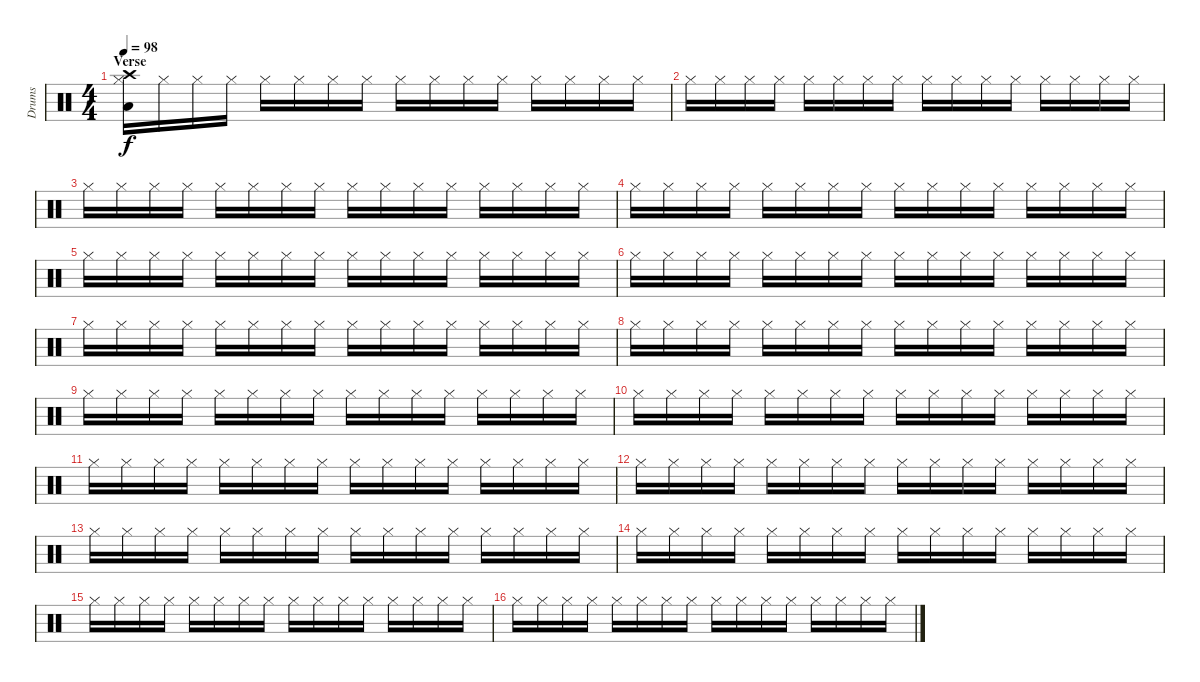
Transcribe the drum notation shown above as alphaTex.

\track ("Drums" "Drums") {instrument percussion}
\staff {score}
\articulation defaults
\ts (4 4)
\section ("" "Verse")
\tempo 98
\clef neutral
\ks c
("Crash high (hit)" "Low Floor Tom (hit)" "Hi-Hat (closed)").16{dy f} "Hi-Hat (closed)".16 "Hi-Hat (closed)".16 "Hi-Hat (closed)".16 "Hi-Hat (closed)".16 "Hi-Hat (closed)".16 "Hi-Hat (closed)".16 "Hi-Hat (closed)".16 "Hi-Hat (closed)".16 "Hi-Hat (closed)".16 "Hi-Hat (closed)".16 "Hi-Hat (closed)".16 "Hi-Hat (closed)".16 "Hi-Hat (closed)".16 "Hi-Hat (closed)".16 "Hi-Hat (closed)".16 |
"Hi-Hat (closed)".16 "Hi-Hat (closed)".16 "Hi-Hat (closed)".16 "Hi-Hat (closed)".16 "Hi-Hat (closed)".16 "Hi-Hat (closed)".16 "Hi-Hat (closed)".16 "Hi-Hat (closed)".16 "Hi-Hat (closed)".16 "Hi-Hat (closed)".16 "Hi-Hat (closed)".16 "Hi-Hat (closed)".16 "Hi-Hat (closed)".16 "Hi-Hat (closed)".16 "Hi-Hat (closed)".16 "Hi-Hat (closed)".16 |
"Hi-Hat (closed)".16 "Hi-Hat (closed)".16 "Hi-Hat (closed)".16 "Hi-Hat (closed)".16 "Hi-Hat (closed)".16 "Hi-Hat (closed)".16 "Hi-Hat (closed)".16 "Hi-Hat (closed)".16 "Hi-Hat (closed)".16 "Hi-Hat (closed)".16 "Hi-Hat (closed)".16 "Hi-Hat (closed)".16 "Hi-Hat (closed)".16 "Hi-Hat (closed)".16 "Hi-Hat (closed)".16 "Hi-Hat (closed)".16 |
"Hi-Hat (closed)".16 "Hi-Hat (closed)".16 "Hi-Hat (closed)".16 "Hi-Hat (closed)".16 "Hi-Hat (closed)".16 "Hi-Hat (closed)".16 "Hi-Hat (closed)".16 "Hi-Hat (closed)".16 "Hi-Hat (closed)".16 "Hi-Hat (closed)".16 "Hi-Hat (closed)".16 "Hi-Hat (closed)".16 "Hi-Hat (closed)".16 "Hi-Hat (closed)".16 "Hi-Hat (closed)".16 "Hi-Hat (closed)".16 |
"Hi-Hat (closed)".16 "Hi-Hat (closed)".16 "Hi-Hat (closed)".16 "Hi-Hat (closed)".16 "Hi-Hat (closed)".16 "Hi-Hat (closed)".16 "Hi-Hat (closed)".16 "Hi-Hat (closed)".16 "Hi-Hat (closed)".16 "Hi-Hat (closed)".16 "Hi-Hat (closed)".16 "Hi-Hat (closed)".16 "Hi-Hat (closed)".16 "Hi-Hat (closed)".16 "Hi-Hat (closed)".16 "Hi-Hat (closed)".16 |
"Hi-Hat (closed)".16 "Hi-Hat (closed)".16 "Hi-Hat (closed)".16 "Hi-Hat (closed)".16 "Hi-Hat (closed)".16 "Hi-Hat (closed)".16 "Hi-Hat (closed)".16 "Hi-Hat (closed)".16 "Hi-Hat (closed)".16 "Hi-Hat (closed)".16 "Hi-Hat (closed)".16 "Hi-Hat (closed)".16 "Hi-Hat (closed)".16 "Hi-Hat (closed)".16 "Hi-Hat (closed)".16 "Hi-Hat (closed)".16 |
"Hi-Hat (closed)".16 "Hi-Hat (closed)".16 "Hi-Hat (closed)".16 "Hi-Hat (closed)".16 "Hi-Hat (closed)".16 "Hi-Hat (closed)".16 "Hi-Hat (closed)".16 "Hi-Hat (closed)".16 "Hi-Hat (closed)".16 "Hi-Hat (closed)".16 "Hi-Hat (closed)".16 "Hi-Hat (closed)".16 "Hi-Hat (closed)".16 "Hi-Hat (closed)".16 "Hi-Hat (closed)".16 "Hi-Hat (closed)".16 |
"Hi-Hat (closed)".16 "Hi-Hat (closed)".16 "Hi-Hat (closed)".16 "Hi-Hat (closed)".16 "Hi-Hat (closed)".16 "Hi-Hat (closed)".16 "Hi-Hat (closed)".16 "Hi-Hat (closed)".16 "Hi-Hat (closed)".16 "Hi-Hat (closed)".16 "Hi-Hat (closed)".16 "Hi-Hat (closed)".16 "Hi-Hat (closed)".16 "Hi-Hat (closed)".16 "Hi-Hat (closed)".16 "Hi-Hat (closed)".16 |
"Hi-Hat (closed)".16 "Hi-Hat (closed)".16 "Hi-Hat (closed)".16 "Hi-Hat (closed)".16 "Hi-Hat (closed)".16 "Hi-Hat (closed)".16 "Hi-Hat (closed)".16 "Hi-Hat (closed)".16 "Hi-Hat (closed)".16 "Hi-Hat (closed)".16 "Hi-Hat (closed)".16 "Hi-Hat (closed)".16 "Hi-Hat (closed)".16 "Hi-Hat (closed)".16 "Hi-Hat (closed)".16 "Hi-Hat (closed)".16 |
"Hi-Hat (closed)".16 "Hi-Hat (closed)".16 "Hi-Hat (closed)".16 "Hi-Hat (closed)".16 "Hi-Hat (closed)".16 "Hi-Hat (closed)".16 "Hi-Hat (closed)".16 "Hi-Hat (closed)".16 "Hi-Hat (closed)".16 "Hi-Hat (closed)".16 "Hi-Hat (closed)".16 "Hi-Hat (closed)".16 "Hi-Hat (closed)".16 "Hi-Hat (closed)".16 "Hi-Hat (closed)".16 "Hi-Hat (closed)".16 |
"Hi-Hat (closed)".16 "Hi-Hat (closed)".16 "Hi-Hat (closed)".16 "Hi-Hat (closed)".16 "Hi-Hat (closed)".16 "Hi-Hat (closed)".16 "Hi-Hat (closed)".16 "Hi-Hat (closed)".16 "Hi-Hat (closed)".16 "Hi-Hat (closed)".16 "Hi-Hat (closed)".16 "Hi-Hat (closed)".16 "Hi-Hat (closed)".16 "Hi-Hat (closed)".16 "Hi-Hat (closed)".16 "Hi-Hat (closed)".16 |
"Hi-Hat (closed)".16 "Hi-Hat (closed)".16 "Hi-Hat (closed)".16 "Hi-Hat (closed)".16 "Hi-Hat (closed)".16 "Hi-Hat (closed)".16 "Hi-Hat (closed)".16 "Hi-Hat (closed)".16 "Hi-Hat (closed)".16 "Hi-Hat (closed)".16 "Hi-Hat (closed)".16 "Hi-Hat (closed)".16 "Hi-Hat (closed)".16 "Hi-Hat (closed)".16 "Hi-Hat (closed)".16 "Hi-Hat (closed)".16 |
"Hi-Hat (closed)".16 "Hi-Hat (closed)".16 "Hi-Hat (closed)".16 "Hi-Hat (closed)".16 "Hi-Hat (closed)".16 "Hi-Hat (closed)".16 "Hi-Hat (closed)".16 "Hi-Hat (closed)".16 "Hi-Hat (closed)".16 "Hi-Hat (closed)".16 "Hi-Hat (closed)".16 "Hi-Hat (closed)".16 "Hi-Hat (closed)".16 "Hi-Hat (closed)".16 "Hi-Hat (closed)".16 "Hi-Hat (closed)".16 |
"Hi-Hat (closed)".16 "Hi-Hat (closed)".16 "Hi-Hat (closed)".16 "Hi-Hat (closed)".16 "Hi-Hat (closed)".16 "Hi-Hat (closed)".16 "Hi-Hat (closed)".16 "Hi-Hat (closed)".16 "Hi-Hat (closed)".16 "Hi-Hat (closed)".16 "Hi-Hat (closed)".16 "Hi-Hat (closed)".16 "Hi-Hat (closed)".16 "Hi-Hat (closed)".16 "Hi-Hat (closed)".16 "Hi-Hat (closed)".16 |
"Hi-Hat (closed)".16 "Hi-Hat (closed)".16 "Hi-Hat (closed)".16 "Hi-Hat (closed)".16 "Hi-Hat (closed)".16 "Hi-Hat (closed)".16 "Hi-Hat (closed)".16 "Hi-Hat (closed)".16 "Hi-Hat (closed)".16 "Hi-Hat (closed)".16 "Hi-Hat (closed)".16 "Hi-Hat (closed)".16 "Hi-Hat (closed)".16 "Hi-Hat (closed)".16 "Hi-Hat (closed)".16 "Hi-Hat (closed)".16 |
"Hi-Hat (closed)".16 "Hi-Hat (closed)".16 "Hi-Hat (closed)".16 "Hi-Hat (closed)".16 "Hi-Hat (closed)".16 "Hi-Hat (closed)".16 "Hi-Hat (closed)".16 "Hi-Hat (closed)".16 "Hi-Hat (closed)".16 "Hi-Hat (closed)".16 "Hi-Hat (closed)".16 "Hi-Hat (closed)".16 "Hi-Hat (closed)".16 "Hi-Hat (closed)".16 "Hi-Hat (closed)".16 "Hi-Hat (closed)".16
